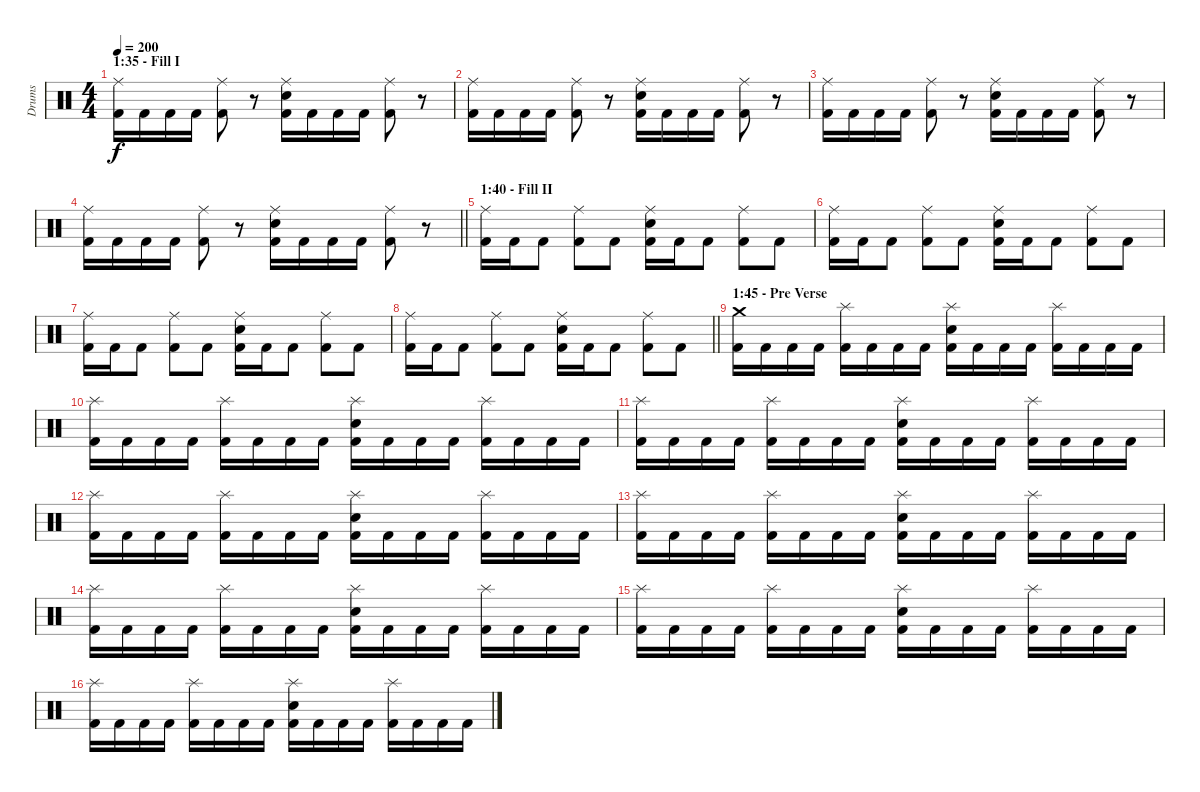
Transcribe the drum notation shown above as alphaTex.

\track ("Drums" "Drums") {instrument percussion}
\staff {score}
\articulation defaults
\ts (4 4)
\section ("" "1:35 - Fill I")
\tempo 200
\clef neutral
\ks c
("Ride (middle)" "Kick (hit) 2").16{dy f} "Kick (hit) 2".16 "Kick (hit) 2".16 "Kick (hit) 2".16 ("Ride (middle)" "Kick (hit) 2").8 r.8 ("Ride (middle)" "Electric Snare (hit)" "Kick (hit) 2").16 "Kick (hit) 2".16 "Kick (hit) 2".16 "Kick (hit) 2".16 ("Ride (middle)" "Kick (hit) 2").8 r.8 |
("Ride (middle)" "Kick (hit) 2").16 "Kick (hit) 2".16 "Kick (hit) 2".16 "Kick (hit) 2".16 ("Ride (middle)" "Kick (hit) 2").8 r.8 ("Ride (middle)" "Electric Snare (hit)" "Kick (hit) 2").16 "Kick (hit) 2".16 "Kick (hit) 2".16 "Kick (hit) 2".16 ("Ride (middle)" "Kick (hit) 2").8 r.8 |
("Ride (middle)" "Kick (hit) 2").16 "Kick (hit) 2".16 "Kick (hit) 2".16 "Kick (hit) 2".16 ("Ride (middle)" "Kick (hit) 2").8 r.8 ("Ride (middle)" "Electric Snare (hit)" "Kick (hit) 2").16 "Kick (hit) 2".16 "Kick (hit) 2".16 "Kick (hit) 2".16 ("Ride (middle)" "Kick (hit) 2").8 r.8 |
\barLineRight lightlight
("Ride (middle)" "Kick (hit) 2").16 "Kick (hit) 2".16 "Kick (hit) 2".16 "Kick (hit) 2".16 ("Ride (middle)" "Kick (hit) 2").8 r.8 ("Ride (middle)" "Electric Snare (hit)" "Kick (hit) 2").16 "Kick (hit) 2".16 "Kick (hit) 2".16 "Kick (hit) 2".16 ("Ride (middle)" "Kick (hit) 2").8 r.8 |
\section ("" "1:40 - Fill II")
("Ride (middle)" "Kick (hit) 2").16 "Kick (hit) 2".16 "Kick (hit) 2".8 ("Ride (middle)" "Kick (hit) 2").8 "Kick (hit) 2".8 ("Ride (middle)" "Electric Snare (hit)" "Kick (hit) 2").16 "Kick (hit) 2".16 "Kick (hit) 2".8 ("Ride (middle)" "Kick (hit) 2").8 "Kick (hit) 2".8 |
("Ride (middle)" "Kick (hit) 2").16 "Kick (hit) 2".16 "Kick (hit) 2".8 ("Ride (middle)" "Kick (hit) 2").8 "Kick (hit) 2".8 ("Ride (middle)" "Electric Snare (hit)" "Kick (hit) 2").16 "Kick (hit) 2".16 "Kick (hit) 2".8 ("Ride (middle)" "Kick (hit) 2").8 "Kick (hit) 2".8 |
("Ride (middle)" "Kick (hit) 2").16 "Kick (hit) 2".16 "Kick (hit) 2".8 ("Ride (middle)" "Kick (hit) 2").8 "Kick (hit) 2".8 ("Ride (middle)" "Electric Snare (hit)" "Kick (hit) 2").16 "Kick (hit) 2".16 "Kick (hit) 2".8 ("Ride (middle)" "Kick (hit) 2").8 "Kick (hit) 2".8 |
\barLineRight lightlight
("Ride (middle)" "Kick (hit) 2").16 "Kick (hit) 2".16 "Kick (hit) 2".8 ("Ride (middle)" "Kick (hit) 2").8 "Kick (hit) 2".8 ("Ride (middle)" "Electric Snare (hit)" "Kick (hit) 2").16 "Kick (hit) 2".16 "Kick (hit) 2".8 ("Ride (middle)" "Kick (hit) 2").8 "Kick (hit) 2".8 |
\section ("" "1:45 - Pre Verse")
("Crash medium (hit)" "Kick (hit) 2").16 "Kick (hit) 2".16 "Kick (hit) 2".16 "Kick (hit) 2".16 ("Splash (hit)" "Kick (hit) 2").16 "Kick (hit) 2".16 "Kick (hit) 2".16 "Kick (hit) 2".16 ("Splash (hit)" "Electric Snare (hit)" "Kick (hit) 2").16 "Kick (hit) 2".16 "Kick (hit) 2".16 "Kick (hit) 2".16 ("Splash (hit)" "Kick (hit) 2").16 "Kick (hit) 2".16 "Kick (hit) 2".16 "Kick (hit) 2".16 |
("Splash (hit)" "Kick (hit) 2").16 "Kick (hit) 2".16 "Kick (hit) 2".16 "Kick (hit) 2".16 ("Splash (hit)" "Kick (hit) 2").16 "Kick (hit) 2".16 "Kick (hit) 2".16 "Kick (hit) 2".16 ("Splash (hit)" "Electric Snare (hit)" "Kick (hit) 2").16 "Kick (hit) 2".16 "Kick (hit) 2".16 "Kick (hit) 2".16 ("Splash (hit)" "Kick (hit) 2").16 "Kick (hit) 2".16 "Kick (hit) 2".16 "Kick (hit) 2".16 |
("Splash (hit)" "Kick (hit) 2").16 "Kick (hit) 2".16 "Kick (hit) 2".16 "Kick (hit) 2".16 ("Splash (hit)" "Kick (hit) 2").16 "Kick (hit) 2".16 "Kick (hit) 2".16 "Kick (hit) 2".16 ("Splash (hit)" "Electric Snare (hit)" "Kick (hit) 2").16 "Kick (hit) 2".16 "Kick (hit) 2".16 "Kick (hit) 2".16 ("Splash (hit)" "Kick (hit) 2").16 "Kick (hit) 2".16 "Kick (hit) 2".16 "Kick (hit) 2".16 |
("Splash (hit)" "Kick (hit) 2").16 "Kick (hit) 2".16 "Kick (hit) 2".16 "Kick (hit) 2".16 ("Splash (hit)" "Kick (hit) 2").16 "Kick (hit) 2".16 "Kick (hit) 2".16 "Kick (hit) 2".16 ("Splash (hit)" "Electric Snare (hit)" "Kick (hit) 2").16 "Kick (hit) 2".16 "Kick (hit) 2".16 "Kick (hit) 2".16 ("Splash (hit)" "Kick (hit) 2").16 "Kick (hit) 2".16 "Kick (hit) 2".16 "Kick (hit) 2".16 |
("Splash (hit)" "Kick (hit) 2").16 "Kick (hit) 2".16 "Kick (hit) 2".16 "Kick (hit) 2".16 ("Splash (hit)" "Kick (hit) 2").16 "Kick (hit) 2".16 "Kick (hit) 2".16 "Kick (hit) 2".16 ("Splash (hit)" "Electric Snare (hit)" "Kick (hit) 2").16 "Kick (hit) 2".16 "Kick (hit) 2".16 "Kick (hit) 2".16 ("Splash (hit)" "Kick (hit) 2").16 "Kick (hit) 2".16 "Kick (hit) 2".16 "Kick (hit) 2".16 |
("Splash (hit)" "Kick (hit) 2").16 "Kick (hit) 2".16 "Kick (hit) 2".16 "Kick (hit) 2".16 ("Splash (hit)" "Kick (hit) 2").16 "Kick (hit) 2".16 "Kick (hit) 2".16 "Kick (hit) 2".16 ("Splash (hit)" "Electric Snare (hit)" "Kick (hit) 2").16 "Kick (hit) 2".16 "Kick (hit) 2".16 "Kick (hit) 2".16 ("Splash (hit)" "Kick (hit) 2").16 "Kick (hit) 2".16 "Kick (hit) 2".16 "Kick (hit) 2".16 |
("Splash (hit)" "Kick (hit) 2").16 "Kick (hit) 2".16 "Kick (hit) 2".16 "Kick (hit) 2".16 ("Splash (hit)" "Kick (hit) 2").16 "Kick (hit) 2".16 "Kick (hit) 2".16 "Kick (hit) 2".16 ("Splash (hit)" "Electric Snare (hit)" "Kick (hit) 2").16 "Kick (hit) 2".16 "Kick (hit) 2".16 "Kick (hit) 2".16 ("Splash (hit)" "Kick (hit) 2").16 "Kick (hit) 2".16 "Kick (hit) 2".16 "Kick (hit) 2".16 |
("Splash (hit)" "Kick (hit) 2").16 "Kick (hit) 2".16 "Kick (hit) 2".16 "Kick (hit) 2".16 ("Splash (hit)" "Kick (hit) 2").16 "Kick (hit) 2".16 "Kick (hit) 2".16 "Kick (hit) 2".16 ("Splash (hit)" "Electric Snare (hit)" "Kick (hit) 2").16 "Kick (hit) 2".16 "Kick (hit) 2".16 "Kick (hit) 2".16 ("Splash (hit)" "Kick (hit) 2").16 "Kick (hit) 2".16 "Kick (hit) 2".16 "Kick (hit) 2".16
